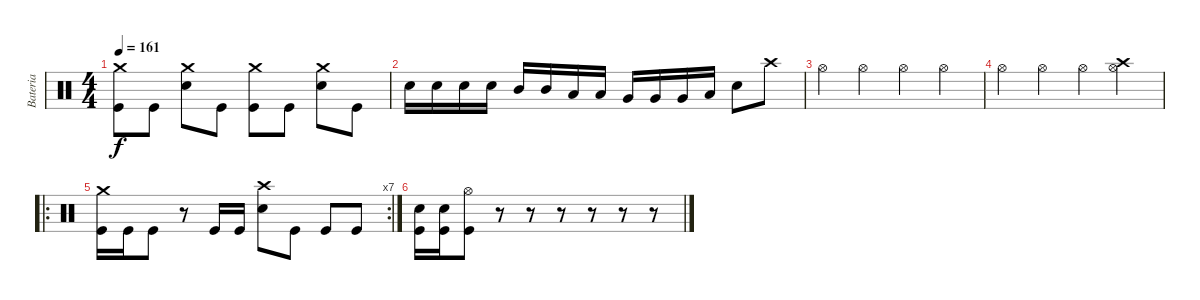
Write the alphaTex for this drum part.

\track ("Bateria" "Bateria") {instrument percussion}
\staff {score}
\articulation defaults
\ts (4 4)
\tempo 161
\clef neutral
\ks c
("Crash medium (hit)" "Kick (hit)").8{dy f} "Kick (hit)".8 ("Crash medium (hit)" "Electric Snare (hit)").8 "Kick (hit)".8 ("Crash medium (hit)" "Kick (hit)").8 "Kick (hit)".8 ("Crash medium (hit)" "Electric Snare (hit)").8 "Kick (hit)".8 |
"Electric Snare (hit)".16 "Electric Snare (hit)".16 "Electric Snare (hit)".16 "Electric Snare (hit)".16 "Mid Tom (hit)".16 "Mid Tom (hit)".16 "Low Tom (hit)".16 "Low Tom (hit)".16 "Very Low Tom (hit)".16 "Very Low Tom (hit)".16 "Very Low Tom (hit)".16 "Low Floor Tom (hit)".16 "Electric Snare (hit)".8 "Crash high (hit)".8 |
"Hi-Hat (open)".4 "Hi-Hat (open)".4 "Hi-Hat (open)".4 "Hi-Hat (open)".4 |
"Hi-Hat (open)".4 "Hi-Hat (open)".4 "Hi-Hat (open)".4 ("Hi-Hat (open)" "Crash high (hit)").4 |
\ro
\rc 7
("Crash medium (hit)" "Kick (hit)").16 "Kick (hit)".16 "Kick (hit)".8 r.8 "Kick (hit)".16 "Kick (hit)".16 ("Crash high (hit)" "Electric Snare (hit)").8 "Kick (hit)".8 "Kick (hit)".8 "Kick (hit)".8 |
("Electric Snare (hit)" "Kick (hit)").16 ("Electric Snare (hit)" "Kick (hit)").16 ("Hi-Hat (open)" "Kick (hit)").8 r.8 r.8 r.8 r.8 r.8 r.8
